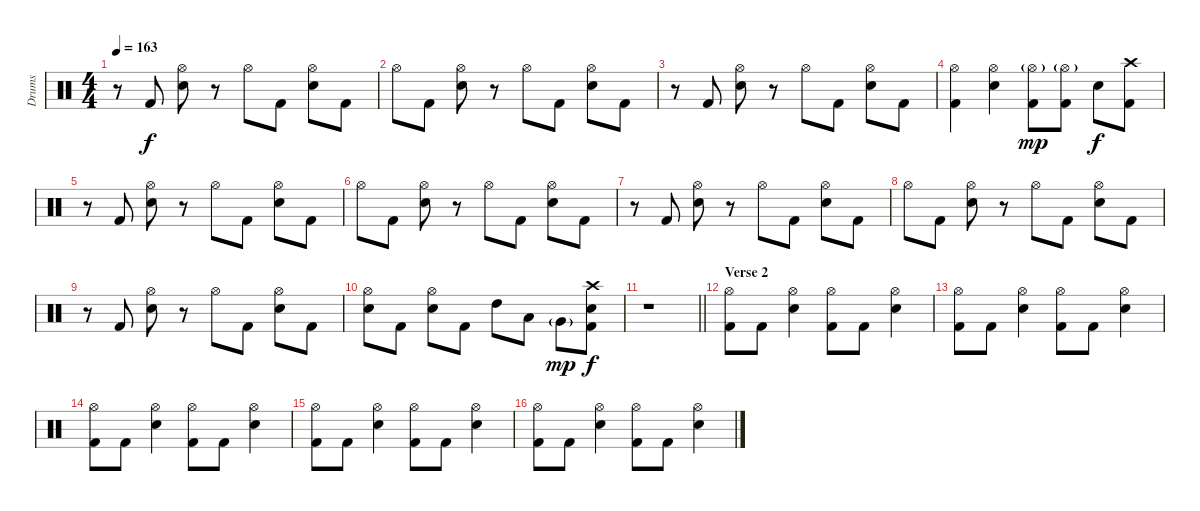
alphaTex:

\track ("Drums" "Drums") {instrument percussion}
\staff {score}
\articulation defaults
\ts (4 4)
\tempo 163
\clef neutral
\ks c
r.8{dy f} "Kick (hit) 2".8 ("Hi-Hat (open)" "Snare (hit) 2").8 r.8 "Hi-Hat (open)".8 "Kick (hit) 2".8 ("Hi-Hat (open)" "Snare (hit) 2").8 "Kick (hit) 2".8 |
"Hi-Hat (open)".8 "Kick (hit) 2".8 ("Hi-Hat (open)" "Snare (hit) 2").8 r.8 "Hi-Hat (open)".8 "Kick (hit) 2".8 ("Hi-Hat (open)" "Snare (hit) 2").8 "Kick (hit) 2".8 |
r.8 "Kick (hit) 2".8 ("Hi-Hat (open)" "Snare (hit) 2").8 r.8 "Hi-Hat (open)".8 "Kick (hit) 2".8 ("Hi-Hat (open)" "Snare (hit) 2").8 "Kick (hit) 2".8 |
("Hi-Hat (open)" "Kick (hit) 2").4 ("Hi-Hat (open)" "Snare (hit) 2").4 ("Hi-Hat (open)"{g} "Kick (hit) 2").8{dy mp} ("Hi-Hat (open)"{g} "Kick (hit) 2").8 "Snare (hit) 2".8{dy f} ("Crash high (hit)" "Kick (hit) 2").8 |
r.8 "Kick (hit) 2".8 ("Hi-Hat (open)" "Snare (hit) 2").8 r.8 "Hi-Hat (open)".8 "Kick (hit) 2".8 ("Hi-Hat (open)" "Snare (hit) 2").8 "Kick (hit) 2".8 |
"Hi-Hat (open)".8 "Kick (hit) 2".8 ("Hi-Hat (open)" "Snare (hit) 2").8 r.8 "Hi-Hat (open)".8 "Kick (hit) 2".8 ("Hi-Hat (open)" "Snare (hit) 2").8 "Kick (hit) 2".8 |
r.8 "Kick (hit) 2".8 ("Hi-Hat (open)" "Snare (hit) 2").8 r.8 "Hi-Hat (open)".8 "Kick (hit) 2".8 ("Hi-Hat (open)" "Snare (hit) 2").8 "Kick (hit) 2".8 |
"Hi-Hat (open)".8 "Kick (hit) 2".8 ("Hi-Hat (open)" "Snare (hit) 2").8 r.8 "Hi-Hat (open)".8 "Kick (hit) 2".8 ("Hi-Hat (open)" "Snare (hit) 2").8 "Kick (hit) 2".8 |
r.8 "Kick (hit) 2".8 ("Hi-Hat (open)" "Snare (hit) 2").8 r.8 "Hi-Hat (open)".8 "Kick (hit) 2".8 ("Hi-Hat (open)" "Snare (hit) 2").8 "Kick (hit) 2".8 |
("Hi-Hat (open)" "Snare (hit) 2").8 "Kick (hit) 2".8 ("Hi-Hat (open)" "Snare (hit) 2").8 "Kick (hit) 2".8 "High Tom (hit)".8 "Low Tom (hit)".8 "Very Low Tom (hit)"{g}.8{dy mp} ("Crash high (hit)" "Snare (hit) 2" "Kick (hit) 2").8{dy f} |
\barLineRight lightlight
r.1 |
\section ("" "Verse 2")
("Hi-Hat (open)" "Kick (hit) 2").8 "Kick (hit) 2".8 ("Hi-Hat (open)" "Snare (hit) 2").4 ("Hi-Hat (open)" "Kick (hit) 2").8 "Kick (hit) 2".8 ("Hi-Hat (open)" "Snare (hit) 2").4 |
("Hi-Hat (open)" "Kick (hit) 2").8 "Kick (hit) 2".8 ("Hi-Hat (open)" "Snare (hit) 2").4 ("Hi-Hat (open)" "Kick (hit) 2").8 "Kick (hit) 2".8 ("Hi-Hat (open)" "Snare (hit) 2").4 |
("Hi-Hat (open)" "Kick (hit) 2").8 "Kick (hit) 2".8 ("Hi-Hat (open)" "Snare (hit) 2").4 ("Hi-Hat (open)" "Kick (hit) 2").8 "Kick (hit) 2".8 ("Hi-Hat (open)" "Snare (hit) 2").4 |
("Hi-Hat (open)" "Kick (hit) 2").8 "Kick (hit) 2".8 ("Hi-Hat (open)" "Snare (hit) 2").4 ("Hi-Hat (open)" "Kick (hit) 2").8 "Kick (hit) 2".8 ("Hi-Hat (open)" "Snare (hit) 2").4 |
("Hi-Hat (open)" "Kick (hit) 2").8 "Kick (hit) 2".8 ("Hi-Hat (open)" "Snare (hit) 2").4 ("Hi-Hat (open)" "Kick (hit) 2").8 "Kick (hit) 2".8 ("Hi-Hat (open)" "Snare (hit) 2").4
